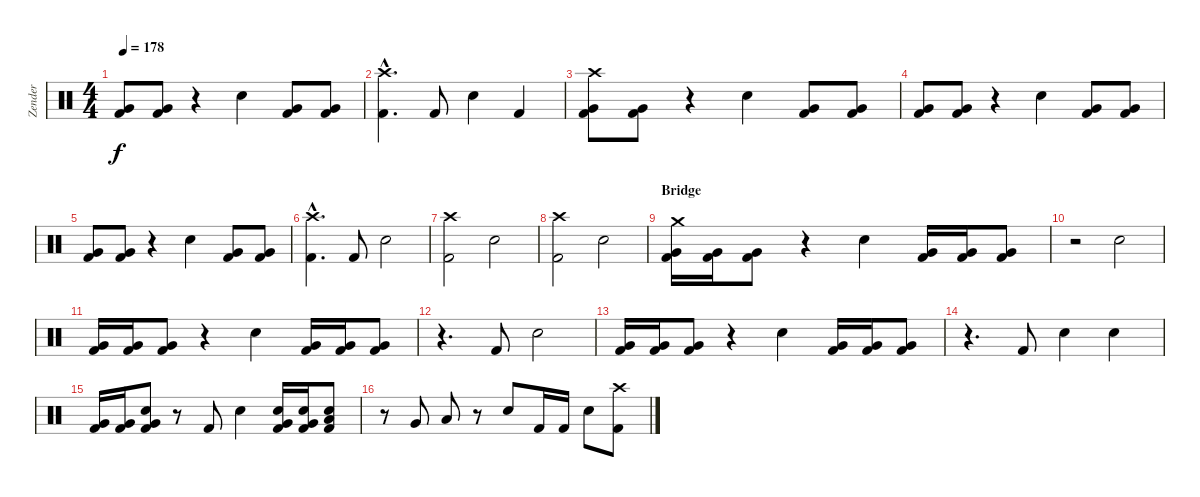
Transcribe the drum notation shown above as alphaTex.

\track ("Zender" "Zender") {instrument percussion}
\staff {score}
\articulation defaults
\ts (4 4)
\tempo 178
\clef neutral
\ks c
("Very Low Tom (hit)" "Kick (hit) 2").8{dy f} ("Very Low Tom (hit)" "Kick (hit) 2").8 r.4 "Electric Snare (hit)".4 ("Very Low Tom (hit)" "Kick (hit) 2").8 ("Very Low Tom (hit)" "Kick (hit) 2").8 |
("Crash high (hit)"{hac} "Kick (hit) 2"{hac}).4{d} "Kick (hit) 2".8 "Electric Snare (hit)".4 "Kick (hit) 2".4 |
("Crash high (hit)" "Very Low Tom (hit)" "Kick (hit) 2").8 ("Very Low Tom (hit)" "Kick (hit) 2").8 r.4 "Electric Snare (hit)".4 ("Very Low Tom (hit)" "Kick (hit) 2").8 ("Very Low Tom (hit)" "Kick (hit) 2").8 |
("Very Low Tom (hit)" "Kick (hit) 2").8 ("Very Low Tom (hit)" "Kick (hit) 2").8 r.4 "Electric Snare (hit)".4 ("Very Low Tom (hit)" "Kick (hit) 2").8 ("Very Low Tom (hit)" "Kick (hit) 2").8 |
("Very Low Tom (hit)" "Kick (hit) 2").8 ("Very Low Tom (hit)" "Kick (hit) 2").8 r.4 "Electric Snare (hit)".4 ("Very Low Tom (hit)" "Kick (hit) 2").8 ("Very Low Tom (hit)" "Kick (hit) 2").8 |
("Crash high (hit)"{hac} "Kick (hit) 2"{hac}).4{d} "Kick (hit) 2".8 "Electric Snare (hit)".2 |
("Crash high (hit)" "Kick (hit) 2").2 "Electric Snare (hit)".2 |
("Crash high (hit)" "Kick (hit) 2").2 "Electric Snare (hit)".2 |
\section ("" "Bridge")
("Crash medium (hit)" "Very Low Tom (hit)" "Kick (hit) 2").16 ("Very Low Tom (hit)" "Kick (hit) 2").16 ("Very Low Tom (hit)" "Kick (hit) 2").8 r.4 "Electric Snare (hit)".4 ("Very Low Tom (hit)" "Kick (hit) 2").16 ("Very Low Tom (hit)" "Kick (hit) 2").16 ("Very Low Tom (hit)" "Kick (hit) 2").8 |
r.2 "Electric Snare (hit)".2 |
("Very Low Tom (hit)" "Kick (hit) 2").16 ("Very Low Tom (hit)" "Kick (hit) 2").16 ("Very Low Tom (hit)" "Kick (hit) 2").8 r.4 "Electric Snare (hit)".4 ("Very Low Tom (hit)" "Kick (hit) 2").16 ("Very Low Tom (hit)" "Kick (hit) 2").16 ("Very Low Tom (hit)" "Kick (hit) 2").8 |
r.4{d} "Kick (hit) 2".8 "Electric Snare (hit)".2 |
("Very Low Tom (hit)" "Kick (hit) 2").16 ("Very Low Tom (hit)" "Kick (hit) 2").16 ("Very Low Tom (hit)" "Kick (hit) 2").8 r.4 "Electric Snare (hit)".4 ("Very Low Tom (hit)" "Kick (hit) 2").16 ("Very Low Tom (hit)" "Kick (hit) 2").16 ("Very Low Tom (hit)" "Kick (hit) 2").8 |
r.4{d} "Kick (hit) 2".8 "Electric Snare (hit)".4 "Electric Snare (hit)".4 |
("Very Low Tom (hit)" "Kick (hit) 2").16 ("Very Low Tom (hit)" "Kick (hit) 2").16 ("Electric Snare (hit)" "Very Low Tom (hit)" "Kick (hit) 2").8 r.8 "Kick (hit) 2".8 "Electric Snare (hit)".4 ("Electric Snare (hit)" "Very Low Tom (hit)" "Kick (hit) 2").16 ("Electric Snare (hit)" "Very Low Tom (hit)" "Kick (hit) 2").16 ("Electric Snare (hit)" "Low Tom (hit)" "Kick (hit) 2").8 |
r.8 "Very Low Tom (hit)".8 "Low Floor Tom (hit)".8 r.8 "Electric Snare (hit)".8 "Kick (hit) 2".16 "Kick (hit) 2".16 "Electric Snare (hit)".8 ("Crash high (hit)" "Kick (hit) 2").8
